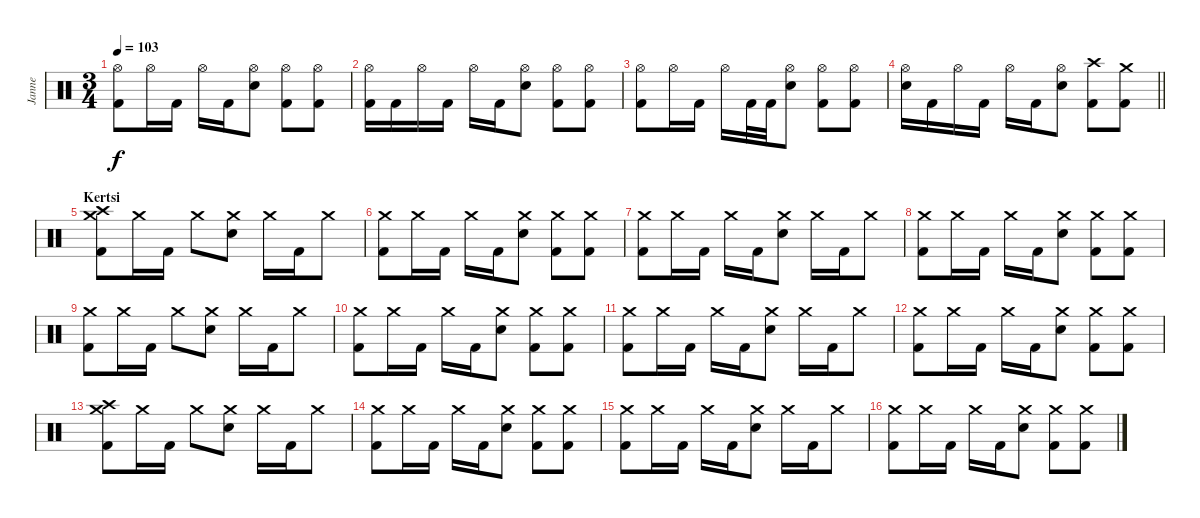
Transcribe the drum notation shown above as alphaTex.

\track ("Janne" "Janne") {instrument percussion}
\staff {score}
\articulation defaults
\ts (3 4)
\tempo 103
\clef neutral
\ks c
("Hi-Hat (open)" "Kick (hit) 2").8{dy f} "Hi-Hat (open)".16 "Kick (hit) 2".16 "Hi-Hat (open)".16 "Kick (hit) 2".16 ("Hi-Hat (open)" "Electric Snare (hit)").8 ("Hi-Hat (open)" "Kick (hit) 2").8 ("Hi-Hat (open)" "Kick (hit) 2").8 |
("Hi-Hat (open)" "Kick (hit) 2").16 "Kick (hit) 2".16 "Hi-Hat (open)".16 "Kick (hit) 2".16 "Hi-Hat (open)".16 "Kick (hit) 2".16 ("Hi-Hat (open)" "Electric Snare (hit)").8 ("Hi-Hat (open)" "Kick (hit) 2").8 ("Hi-Hat (open)" "Kick (hit) 2").8 |
("Hi-Hat (open)" "Kick (hit) 2").8 "Hi-Hat (open)".16 "Kick (hit) 2".16 "Hi-Hat (open)".16 "Kick (hit) 2".32 "Kick (hit) 2".32 ("Hi-Hat (open)" "Electric Snare (hit)").8 ("Hi-Hat (open)" "Kick (hit) 2").8 ("Hi-Hat (open)" "Kick (hit) 2").8 |
\barLineRight lightlight
("Hi-Hat (open)" "Electric Snare (hit)").16 "Kick (hit) 2".16 "Hi-Hat (open)".16 "Kick (hit) 2".16 "Hi-Hat (open)".16 "Kick (hit) 2".16 ("Hi-Hat (open)" "Electric Snare (hit)").8 ("Crash high (hit)" "Kick (hit) 2").8 ("Crash medium (hit)" "Kick (hit) 2").8 |
\section ("" "Kertsi")
("Crash high (hit)" "Crash medium (hit)" "Kick (hit) 2").8 "Crash medium (hit)".16 "Kick (hit) 2".16 "Crash medium (hit)".8 ("Crash medium (hit)" "Electric Snare (hit)").8 "Crash medium (hit)".16 "Kick (hit) 2".16 "Crash medium (hit)".8 |
("Crash medium (hit)" "Kick (hit) 2").8 "Crash medium (hit)".16 "Kick (hit) 2".16 "Crash medium (hit)".16 "Kick (hit) 2".16 ("Crash medium (hit)" "Electric Snare (hit)").8 ("Crash medium (hit)" "Kick (hit) 2").8 ("Crash medium (hit)" "Kick (hit) 2").8 |
("Crash medium (hit)" "Kick (hit) 2").8 "Crash medium (hit)".16 "Kick (hit) 2".16 "Crash medium (hit)".16 "Kick (hit) 2".16 ("Crash medium (hit)" "Electric Snare (hit)").8 "Crash medium (hit)".16 "Kick (hit) 2".16 "Crash medium (hit)".8 |
("Crash medium (hit)" "Kick (hit) 2").8 "Crash medium (hit)".16 "Kick (hit) 2".16 "Crash medium (hit)".16 "Kick (hit) 2".16 ("Crash medium (hit)" "Electric Snare (hit)").8 ("Crash medium (hit)" "Kick (hit) 2").8 ("Crash medium (hit)" "Kick (hit) 2").8 |
("Crash medium (hit)" "Kick (hit) 2").8 "Crash medium (hit)".16 "Kick (hit) 2".16 "Crash medium (hit)".8 ("Crash medium (hit)" "Electric Snare (hit)").8 "Crash medium (hit)".16 "Kick (hit) 2".16 "Crash medium (hit)".8 |
("Crash medium (hit)" "Kick (hit) 2").8 "Crash medium (hit)".16 "Kick (hit) 2".16 "Crash medium (hit)".16 "Kick (hit) 2".16 ("Crash medium (hit)" "Electric Snare (hit)").8 ("Crash medium (hit)" "Kick (hit) 2").8 ("Crash medium (hit)" "Kick (hit) 2").8 |
("Crash medium (hit)" "Kick (hit) 2").8 "Crash medium (hit)".16 "Kick (hit) 2".16 "Crash medium (hit)".16 "Kick (hit) 2".16 ("Crash medium (hit)" "Electric Snare (hit)").8 "Crash medium (hit)".16 "Kick (hit) 2".16 "Crash medium (hit)".8 |
("Crash medium (hit)" "Kick (hit) 2").8 "Crash medium (hit)".16 "Kick (hit) 2".16 "Crash medium (hit)".16 "Kick (hit) 2".16 ("Crash medium (hit)" "Electric Snare (hit)").8 ("Crash medium (hit)" "Kick (hit) 2").8 ("Crash medium (hit)" "Kick (hit) 2").8 |
("Crash high (hit)" "Crash medium (hit)" "Kick (hit) 2").8 "Crash medium (hit)".16 "Kick (hit) 2".16 "Crash medium (hit)".8 ("Crash medium (hit)" "Electric Snare (hit)").8 "Crash medium (hit)".16 "Kick (hit) 2".16 "Crash medium (hit)".8 |
("Crash medium (hit)" "Kick (hit) 2").8 "Crash medium (hit)".16 "Kick (hit) 2".16 "Crash medium (hit)".16 "Kick (hit) 2".16 ("Crash medium (hit)" "Electric Snare (hit)").8 ("Crash medium (hit)" "Kick (hit) 2").8 ("Crash medium (hit)" "Kick (hit) 2").8 |
("Crash medium (hit)" "Kick (hit) 2").8 "Crash medium (hit)".16 "Kick (hit) 2".16 "Crash medium (hit)".16 "Kick (hit) 2".16 ("Crash medium (hit)" "Electric Snare (hit)").8 "Crash medium (hit)".16 "Kick (hit) 2".16 "Crash medium (hit)".8 |
("Crash medium (hit)" "Kick (hit) 2").8 "Crash medium (hit)".16 "Kick (hit) 2".16 "Crash medium (hit)".16 "Kick (hit) 2".16 ("Crash medium (hit)" "Electric Snare (hit)").8 ("Crash medium (hit)" "Kick (hit) 2").8 ("Crash medium (hit)" "Kick (hit) 2").8
